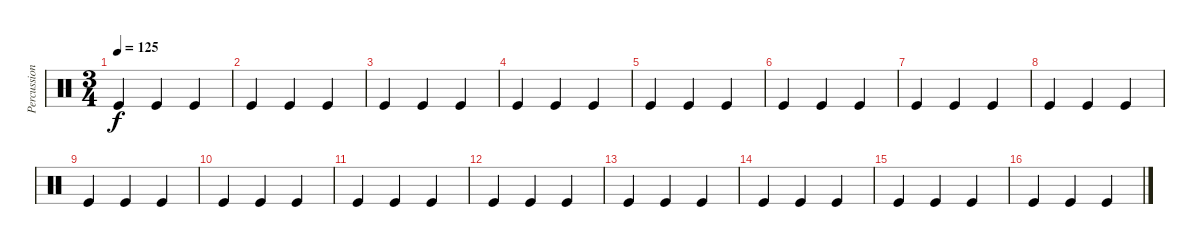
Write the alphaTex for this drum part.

\track ("Percussion" "Percussion") {instrument percussion}
\staff {score}
\articulation defaults
\ts (3 4)
\tempo 125
\clef neutral
\ks c "Kick (hit)".4{dy f} "Kick (hit)".4 "Kick (hit)".4
|
"Kick (hit)".4 "Kick (hit)".4 "Kick (hit)".4 |
"Kick (hit)".4 "Kick (hit)".4 "Kick (hit)".4 |
"Kick (hit)".4 "Kick (hit)".4 "Kick (hit)".4 |
"Kick (hit)".4 "Kick (hit)".4 "Kick (hit)".4 |
"Kick (hit)".4 "Kick (hit)".4 "Kick (hit)".4 |
"Kick (hit)".4 "Kick (hit)".4 "Kick (hit)".4 |
"Kick (hit)".4 "Kick (hit)".4 "Kick (hit)".4 |
"Kick (hit)".4 "Kick (hit)".4 "Kick (hit)".4 |
"Kick (hit)".4 "Kick (hit)".4 "Kick (hit)".4 |
"Kick (hit)".4 "Kick (hit)".4 "Kick (hit)".4 |
"Kick (hit)".4 "Kick (hit)".4 "Kick (hit)".4 |
"Kick (hit)".4 "Kick (hit)".4 "Kick (hit)".4 |
"Kick (hit)".4 "Kick (hit)".4 "Kick (hit)".4 |
"Kick (hit)".4 "Kick (hit)".4 "Kick (hit)".4 |
"Kick (hit)".4 "Kick (hit)".4 "Kick (hit)".4
